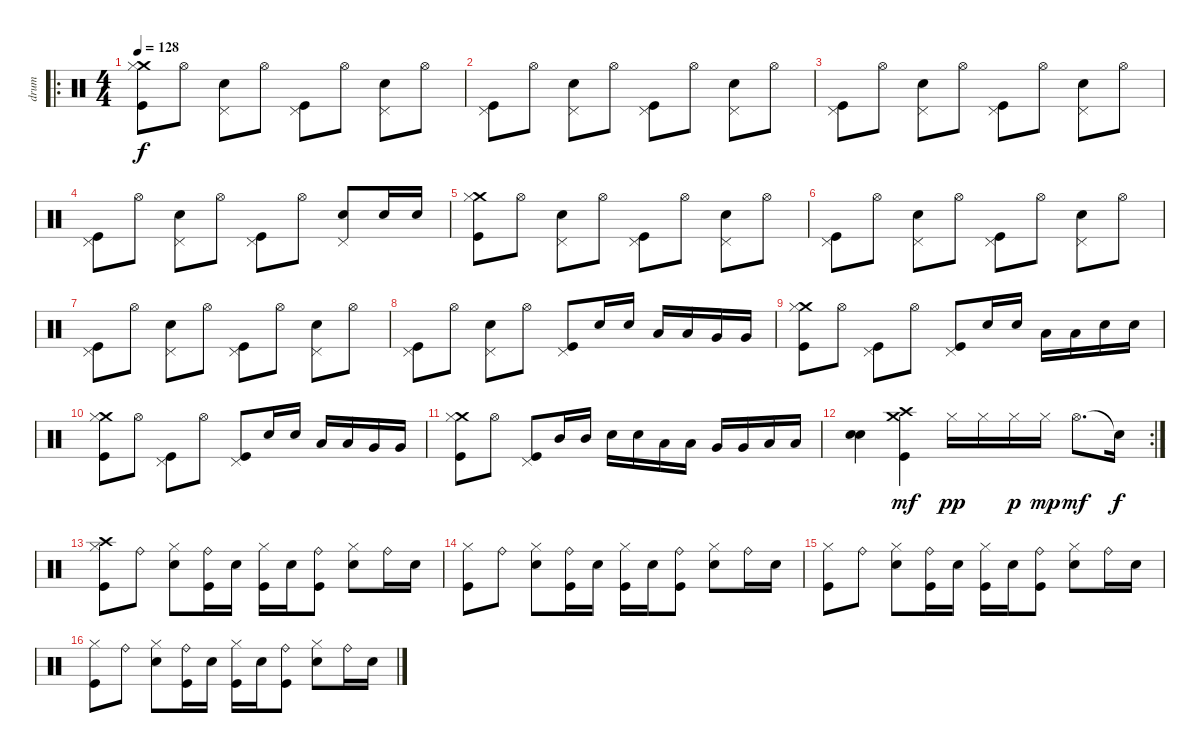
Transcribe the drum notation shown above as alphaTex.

\track ("drum" "drum") {instrument percussion}
\staff {score}
\articulation defaults
\ro
\ts (4 4)
\tempo 128
\clef neutral
\ks c
("Crash medium (hit)" "Hi-Hat (closed)" "Kick (hit)").8{dy f} "Hi-Hat (open)".8 ("Pedal Hi-Hat (hit)" "Snare (hit) 2").8 "Hi-Hat (open)".8 ("Pedal Hi-Hat (hit)" "Kick (hit)").8 "Hi-Hat (open)".8 ("Pedal Hi-Hat (hit)" "Snare (hit) 2").8 "Hi-Hat (open)".8 |
("Pedal Hi-Hat (hit)" "Kick (hit)").8 "Hi-Hat (open)".8 ("Pedal Hi-Hat (hit)" "Snare (hit) 2").8 "Hi-Hat (open)".8 ("Pedal Hi-Hat (hit)" "Kick (hit)").8 "Hi-Hat (open)".8 ("Pedal Hi-Hat (hit)" "Snare (hit) 2").8 "Hi-Hat (open)".8 |
("Pedal Hi-Hat (hit)" "Kick (hit)").8 "Hi-Hat (open)".8 ("Pedal Hi-Hat (hit)" "Snare (hit) 2").8 "Hi-Hat (open)".8 ("Pedal Hi-Hat (hit)" "Kick (hit)").8 "Hi-Hat (open)".8 ("Pedal Hi-Hat (hit)" "Snare (hit) 2").8 "Hi-Hat (open)".8 |
("Pedal Hi-Hat (hit)" "Kick (hit)").8 "Hi-Hat (open)".8 ("Pedal Hi-Hat (hit)" "Snare (hit) 2").8 "Hi-Hat (open)".8 ("Pedal Hi-Hat (hit)" "Kick (hit)").8 "Hi-Hat (open)".8 ("Pedal Hi-Hat (hit)" "Snare (hit) 2").8 "Snare (hit) 2".16 "Snare (hit) 2".16 |
("Crash medium (hit)" "Hi-Hat (closed)" "Kick (hit)").8 "Hi-Hat (open)".8 ("Pedal Hi-Hat (hit)" "Snare (hit) 2").8 "Hi-Hat (open)".8 ("Pedal Hi-Hat (hit)" "Kick (hit)").8 "Hi-Hat (open)".8 ("Pedal Hi-Hat (hit)" "Snare (hit) 2").8 "Hi-Hat (open)".8 |
("Pedal Hi-Hat (hit)" "Kick (hit)").8 "Hi-Hat (open)".8 ("Pedal Hi-Hat (hit)" "Snare (hit) 2").8 "Hi-Hat (open)".8 ("Pedal Hi-Hat (hit)" "Kick (hit)").8 "Hi-Hat (open)".8 ("Pedal Hi-Hat (hit)" "Snare (hit) 2").8 "Hi-Hat (open)".8 |
("Pedal Hi-Hat (hit)" "Kick (hit)").8 "Hi-Hat (open)".8 ("Pedal Hi-Hat (hit)" "Snare (hit) 2").8 "Hi-Hat (open)".8 ("Pedal Hi-Hat (hit)" "Kick (hit)").8 "Hi-Hat (open)".8 ("Pedal Hi-Hat (hit)" "Snare (hit) 2").8 "Hi-Hat (open)".8 |
("Pedal Hi-Hat (hit)" "Kick (hit)").8 "Hi-Hat (open)".8 ("Pedal Hi-Hat (hit)" "Snare (hit) 2").8 "Hi-Hat (open)".8 ("Pedal Hi-Hat (hit)" "Kick (hit)").8 "Snare (hit) 2".16 "Snare (hit) 2".16 "Low Tom (hit)".16 "Low Tom (hit)".16 "Very Low Tom (hit)".16 "Very Low Tom (hit)".16 |
("Crash medium (hit)" "Hi-Hat (closed)" "Kick (hit)").8 "Hi-Hat (open)".8 ("Pedal Hi-Hat (hit)" "Kick (hit)").8 "Hi-Hat (open)".8 ("Pedal Hi-Hat (hit)" "Kick (hit)").8 "Snare (hit) 2".16 "Snare (hit) 2".16 "Low Tom (hit)".16 "Low Tom (hit)".16 "Snare (hit) 2".16 "Snare (hit) 2".16 |
("Crash medium (hit)" "Hi-Hat (closed)" "Kick (hit)").8 "Hi-Hat (open)".8 ("Pedal Hi-Hat (hit)" "Kick (hit)").8 "Hi-Hat (open)".8 ("Pedal Hi-Hat (hit)" "Kick (hit)").8 "Snare (hit) 2".16 "Snare (hit) 2".16 "Low Tom (hit)".16 "Low Tom (hit)".16 "Very Low Tom (hit)".16 "Very Low Tom (hit)".16 |
("Crash medium (hit)" "Hi-Hat (closed)" "Kick (hit)").8 "Hi-Hat (open)".8 ("Pedal Hi-Hat (hit)" "Kick (hit)").8 "Mid Tom (hit)".16 "Mid Tom (hit)".16 "Snare (hit) 2".16 "Snare (hit) 2".16 "Low Tom (hit)".16 "Low Tom (hit)".16 "Very Low Tom (hit)".16 "Very Low Tom (hit)".16 "Low Floor Tom (hit)".16 "Low Floor Tom (hit)".16 |
\rc 2
("Snare (hit) 2" "Snare (hit) 2").4{bd 240} ("Crash high (hit)" "Crash medium (hit)" "Kick (hit)").4{dy mf} "Hi-Hat (closed)".16{dy pp} "Hi-Hat (closed)".16 "Hi-Hat (closed)".16{dy p} "Hi-Hat (closed)".16{dy mp} "Hi-Hat (open)".8{d dy mf} "Snare (hit)"{t}.16{dy f} |
("Crash high (hit)" "Hi-Hat (closed)" "Kick (hit)").8 "Ride (bell)".8 ("Hi-Hat (closed)" "Snare (hit) 2").8 ("Ride (bell)" "Kick (hit)").16 "Snare (hit) 2".16 ("Hi-Hat (closed)" "Kick (hit)").16 "Snare (hit) 2".16 ("Ride (bell)" "Kick (hit)").8 ("Hi-Hat (closed)" "Snare (hit) 2").8 "Ride (bell)".16 "Snare (hit) 2".16 |
("Hi-Hat (closed)" "Kick (hit)").8 "Ride (bell)".8 ("Hi-Hat (closed)" "Snare (hit) 2").8 ("Ride (bell)" "Kick (hit)").16 "Snare (hit) 2".16 ("Hi-Hat (closed)" "Kick (hit)").16 "Snare (hit) 2".16 ("Ride (bell)" "Kick (hit)").8 ("Hi-Hat (closed)" "Snare (hit) 2").8 "Ride (bell)".16 "Snare (hit) 2".16 |
("Hi-Hat (closed)" "Kick (hit)").8 "Ride (bell)".8 ("Hi-Hat (closed)" "Snare (hit) 2").8 ("Ride (bell)" "Kick (hit)").16 "Snare (hit) 2".16 ("Hi-Hat (closed)" "Kick (hit)").16 "Snare (hit) 2".16 ("Ride (bell)" "Kick (hit)").8 ("Hi-Hat (closed)" "Snare (hit) 2").8 "Ride (bell)".16 "Snare (hit) 2".16 |
("Hi-Hat (closed)" "Kick (hit)").8 "Ride (bell)".8 ("Hi-Hat (closed)" "Snare (hit) 2").8 ("Ride (bell)" "Kick (hit)").16 "Snare (hit) 2".16 ("Hi-Hat (closed)" "Kick (hit)").16 "Snare (hit) 2".16 ("Ride (bell)" "Kick (hit)").8 ("Hi-Hat (closed)" "Snare (hit) 2").8 "Ride (bell)".16 "Snare (hit) 2".16
